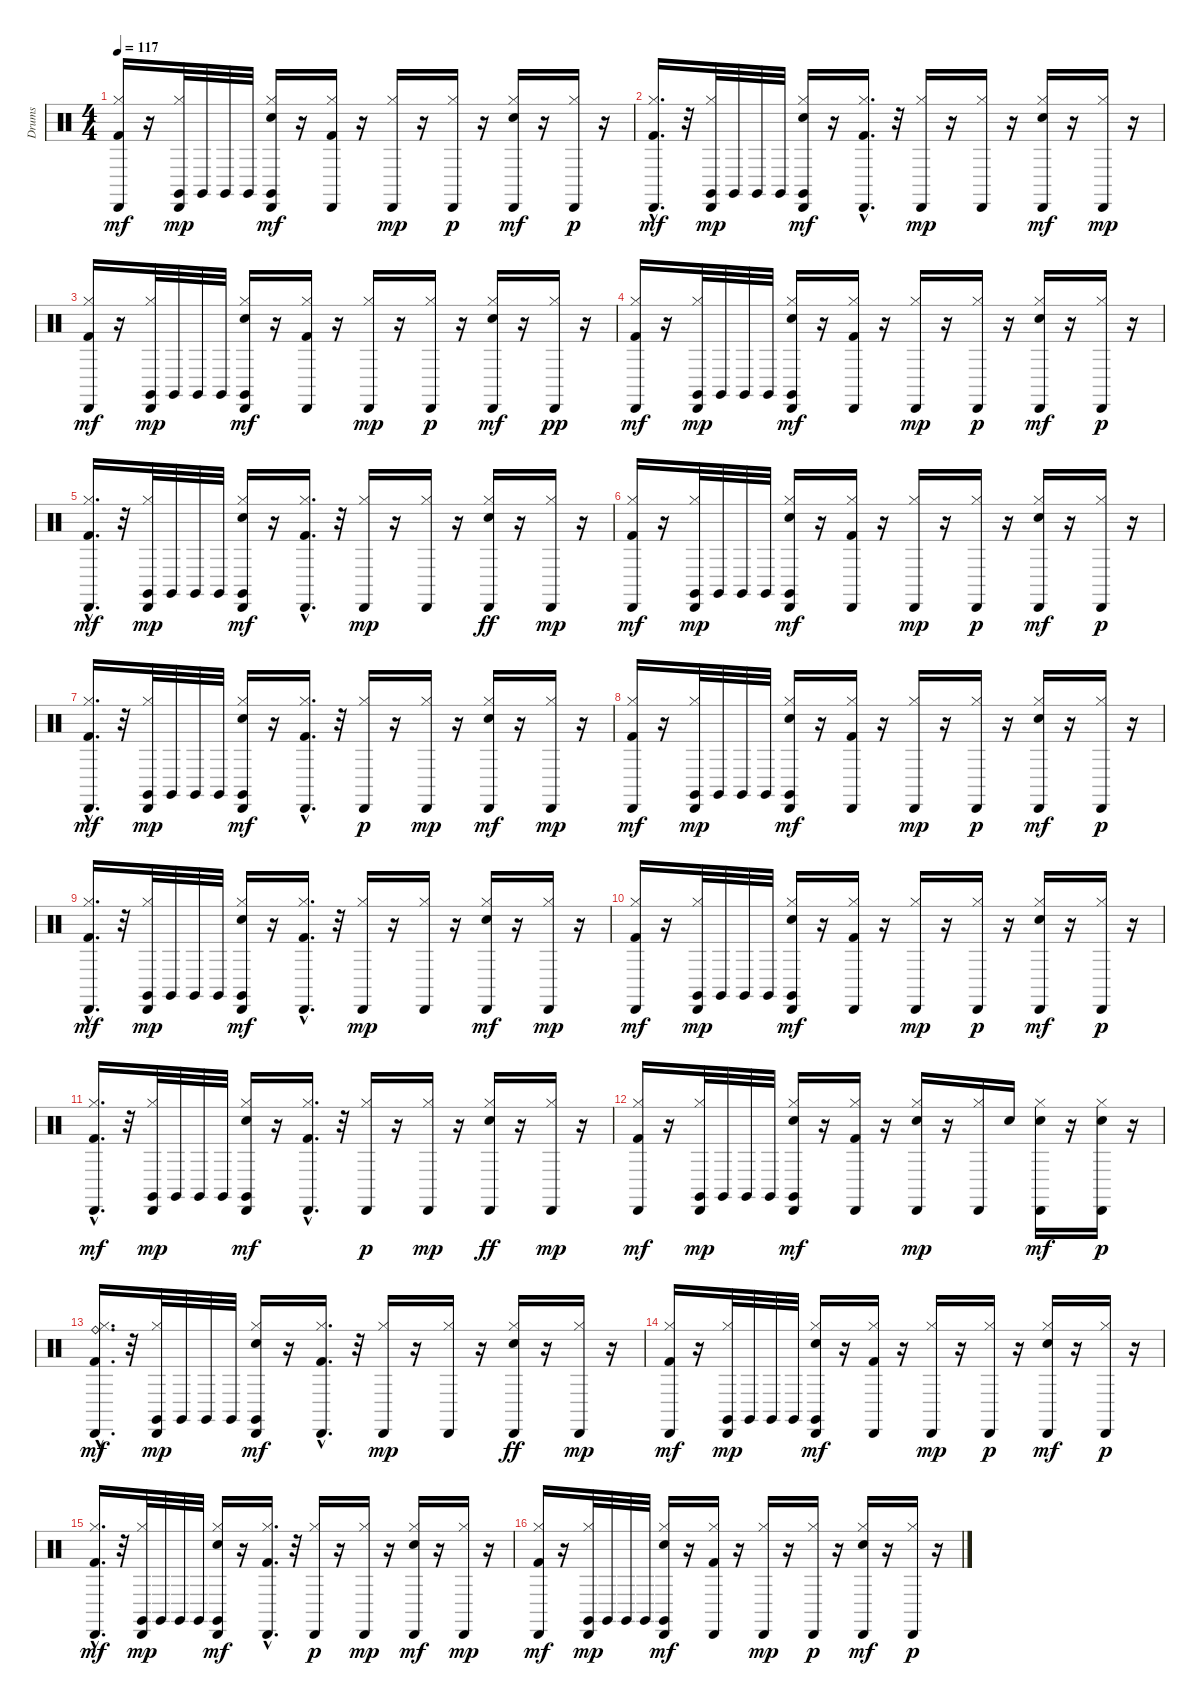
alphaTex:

\track ("Drums" "Drums") {instrument percussion}
\staff {score}
\articulation defaults
\ts (4 4)
\tempo 117
\clef neutral
\ks c
("Kick (hit) 2" "Hi-Hat (closed)" "Cabasa (hit)").16{dy mf} r.16 ("Hi-Hat (closed)" "Cabasa (hit)" "Claves (hit)").32{dy mp} "Claves (hit)".32 "Claves (hit)".32 "Claves (hit)".32 ("Electric Snare (hit)" "Hi-Hat (closed)" "Cabasa (hit)" "Claves (hit)").16{dy mf} r.16 ("Kick (hit) 2" "Hi-Hat (closed)" "Cabasa (hit)").16 r.16 ("Hi-Hat (closed)" "Cabasa (hit)").16{dy mp} r.16 ("Hi-Hat (closed)" "Cabasa (hit)").16{dy p} r.16 ("Electric Snare (hit)" "Hi-Hat (closed)" "Cabasa (hit)").16{dy mf} r.16 ("Hi-Hat (closed)" "Cabasa (hit)").16{dy p} r.16 |
("Kick (hit) 2"{hac} "Hi-Hat (closed)" "Cabasa (hit)").16{d dy mf} r.32 ("Hi-Hat (closed)" "Cabasa (hit)" "Claves (hit)").32{dy mp} "Claves (hit)".32 "Claves (hit)".32 "Claves (hit)".32 ("Electric Snare (hit)" "Hi-Hat (closed)" "Cabasa (hit)" "Claves (hit)").16{dy mf} r.16 ("Kick (hit) 2"{hac} "Hi-Hat (closed)" "Cabasa (hit)").16{d} r.32 ("Hi-Hat (closed)" "Cabasa (hit)").16{dy mp} r.16 ("Hi-Hat (closed)" "Cabasa (hit)").16 r.16 ("Electric Snare (hit)" "Hi-Hat (closed)" "Cabasa (hit)").16{dy mf} r.16 ("Hi-Hat (closed)" "Cabasa (hit)").16{dy mp} r.16 |
("Kick (hit) 2" "Hi-Hat (closed)" "Cabasa (hit)").16{dy mf} r.16 ("Hi-Hat (closed)" "Cabasa (hit)" "Claves (hit)").32{dy mp} "Claves (hit)".32 "Claves (hit)".32 "Claves (hit)".32 ("Electric Snare (hit)" "Hi-Hat (closed)" "Cabasa (hit)" "Claves (hit)").16{dy mf} r.16 ("Kick (hit) 2" "Hi-Hat (closed)" "Cabasa (hit)").16 r.16 ("Hi-Hat (closed)" "Cabasa (hit)").16{dy mp} r.16 ("Hi-Hat (closed)" "Cabasa (hit)").16{dy p} r.16 ("Electric Snare (hit)" "Hi-Hat (closed)" "Cabasa (hit)").16{dy mf} r.16 ("Hi-Hat (closed)" "Cabasa (hit)").16{dy pp} r.16 |
("Kick (hit) 2" "Hi-Hat (closed)" "Cabasa (hit)").16{dy mf} r.16 ("Hi-Hat (closed)" "Cabasa (hit)" "Claves (hit)").32{dy mp} "Claves (hit)".32 "Claves (hit)".32 "Claves (hit)".32 ("Electric Snare (hit)" "Hi-Hat (closed)" "Cabasa (hit)" "Claves (hit)").16{dy mf} r.16 ("Kick (hit) 2" "Hi-Hat (closed)" "Cabasa (hit)").16 r.16 ("Hi-Hat (closed)" "Cabasa (hit)").16{dy mp} r.16 ("Hi-Hat (closed)" "Cabasa (hit)").16{dy p} r.16 ("Electric Snare (hit)" "Hi-Hat (closed)" "Cabasa (hit)").16{dy mf} r.16 ("Hi-Hat (closed)" "Cabasa (hit)").16{dy p} r.16 |
("Kick (hit) 2"{hac} "Hi-Hat (closed)" "Cabasa (hit)").16{d dy mf} r.32 ("Hi-Hat (closed)" "Cabasa (hit)" "Claves (hit)").32{dy mp} "Claves (hit)".32 "Claves (hit)".32 "Claves (hit)".32 ("Electric Snare (hit)" "Hi-Hat (closed)" "Cabasa (hit)" "Claves (hit)").16{dy mf} r.16 ("Kick (hit) 2"{hac} "Hi-Hat (closed)" "Cabasa (hit)").16{d} r.32 ("Hi-Hat (closed)" "Cabasa (hit)").16{dy mp} r.16 ("Hi-Hat (closed)" "Cabasa (hit)").16 r.16 ("Electric Snare (hit)" "Hi-Hat (closed)" "Cabasa (hit)").16{dy ff} r.16 ("Hi-Hat (closed)" "Cabasa (hit)").16{dy mp} r.16 |
("Kick (hit) 2" "Hi-Hat (closed)" "Cabasa (hit)").16{dy mf} r.16 ("Hi-Hat (closed)" "Cabasa (hit)" "Claves (hit)").32{dy mp} "Claves (hit)".32 "Claves (hit)".32 "Claves (hit)".32 ("Electric Snare (hit)" "Hi-Hat (closed)" "Cabasa (hit)" "Claves (hit)").16{dy mf} r.16 ("Kick (hit) 2" "Hi-Hat (closed)" "Cabasa (hit)").16 r.16 ("Hi-Hat (closed)" "Cabasa (hit)").16{dy mp} r.16 ("Hi-Hat (closed)" "Cabasa (hit)").16{dy p} r.16 ("Electric Snare (hit)" "Hi-Hat (closed)" "Cabasa (hit)").16{dy mf} r.16 ("Hi-Hat (closed)" "Cabasa (hit)").16{dy p} r.16 |
("Kick (hit) 2"{hac} "Hi-Hat (closed)" "Cabasa (hit)").16{d dy mf} r.32 ("Hi-Hat (closed)" "Cabasa (hit)" "Claves (hit)").32{dy mp} "Claves (hit)".32 "Claves (hit)".32 "Claves (hit)".32 ("Electric Snare (hit)" "Hi-Hat (closed)" "Cabasa (hit)" "Claves (hit)").16{dy mf} r.16 ("Kick (hit) 2"{hac} "Hi-Hat (closed)" "Cabasa (hit)").16{d} r.32 ("Hi-Hat (closed)" "Cabasa (hit)").16{dy p} r.16 ("Hi-Hat (closed)" "Cabasa (hit)").16{dy mp} r.16 ("Electric Snare (hit)" "Hi-Hat (closed)" "Cabasa (hit)").16{dy mf} r.16 ("Hi-Hat (closed)" "Cabasa (hit)").16{dy mp} r.16 |
("Kick (hit) 2" "Hi-Hat (closed)" "Cabasa (hit)").16{dy mf} r.16 ("Hi-Hat (closed)" "Cabasa (hit)" "Claves (hit)").32{dy mp} "Claves (hit)".32 "Claves (hit)".32 "Claves (hit)".32 ("Electric Snare (hit)" "Hi-Hat (closed)" "Cabasa (hit)" "Claves (hit)").16{dy mf} r.16 ("Kick (hit) 2" "Hi-Hat (closed)" "Cabasa (hit)").16 r.16 ("Hi-Hat (closed)" "Cabasa (hit)").16{dy mp} r.16 ("Hi-Hat (closed)" "Cabasa (hit)").16{dy p} r.16 ("Electric Snare (hit)" "Hi-Hat (closed)" "Cabasa (hit)").16{dy mf} r.16 ("Hi-Hat (closed)" "Cabasa (hit)").16{dy p} r.16 |
("Kick (hit) 2"{hac} "Hi-Hat (closed)" "Cabasa (hit)").16{d dy mf} r.32 ("Hi-Hat (closed)" "Cabasa (hit)" "Claves (hit)").32{dy mp} "Claves (hit)".32 "Claves (hit)".32 "Claves (hit)".32 ("Electric Snare (hit)" "Hi-Hat (closed)" "Cabasa (hit)" "Claves (hit)").16{dy mf} r.16 ("Kick (hit) 2"{hac} "Hi-Hat (closed)" "Cabasa (hit)").16{d} r.32 ("Hi-Hat (closed)" "Cabasa (hit)").16{dy mp} r.16 ("Hi-Hat (closed)" "Cabasa (hit)").16 r.16 ("Electric Snare (hit)" "Hi-Hat (closed)" "Cabasa (hit)").16{dy mf} r.16 ("Hi-Hat (closed)" "Cabasa (hit)").16{dy mp} r.16 |
("Kick (hit) 2" "Hi-Hat (closed)" "Cabasa (hit)").16{dy mf} r.16 ("Hi-Hat (closed)" "Cabasa (hit)" "Claves (hit)").32{dy mp} "Claves (hit)".32 "Claves (hit)".32 "Claves (hit)".32 ("Electric Snare (hit)" "Hi-Hat (closed)" "Cabasa (hit)" "Claves (hit)").16{dy mf} r.16 ("Kick (hit) 2" "Hi-Hat (closed)" "Cabasa (hit)").16 r.16 ("Hi-Hat (closed)" "Cabasa (hit)").16{dy mp} r.16 ("Hi-Hat (closed)" "Cabasa (hit)").16{dy p} r.16 ("Electric Snare (hit)" "Hi-Hat (closed)" "Cabasa (hit)").16{dy mf} r.16 ("Hi-Hat (closed)" "Cabasa (hit)").16{dy p} r.16 |
("Kick (hit) 2"{hac} "Hi-Hat (closed)" "Cabasa (hit)").16{d dy mf} r.32 ("Hi-Hat (closed)" "Cabasa (hit)" "Claves (hit)").32{dy mp} "Claves (hit)".32 "Claves (hit)".32 "Claves (hit)".32 ("Electric Snare (hit)" "Hi-Hat (closed)" "Cabasa (hit)" "Claves (hit)").16{dy mf} r.16 ("Kick (hit) 2"{hac} "Hi-Hat (closed)" "Cabasa (hit)").16{d} r.32 ("Hi-Hat (closed)" "Cabasa (hit)").16{dy p} r.16 ("Hi-Hat (closed)" "Cabasa (hit)").16{dy mp} r.16 ("Electric Snare (hit)" "Hi-Hat (closed)" "Cabasa (hit)").16{dy ff} r.16 ("Hi-Hat (closed)" "Cabasa (hit)").16{dy mp} r.16 |
("Kick (hit) 2" "Hi-Hat (closed)" "Cabasa (hit)").16{dy mf} r.16 ("Hi-Hat (closed)" "Cabasa (hit)" "Claves (hit)").32{dy mp} "Claves (hit)".32 "Claves (hit)".32 "Claves (hit)".32 ("Electric Snare (hit)" "Hi-Hat (closed)" "Cabasa (hit)" "Claves (hit)").16{dy mf} r.16 ("Kick (hit) 2" "Hi-Hat (closed)" "Cabasa (hit)").16 r.16 ("Electric Snare (hit)" "Hi-Hat (closed)" "Cabasa (hit)").16{dy mp} r.16 ("Hi-Hat (closed)" "Cabasa (hit)").16 "Electric Snare (hit)".16 ("Electric Snare (hit)" "Hi-Hat (closed)" "Cabasa (hit)").16{dy mf} r.16 ("Electric Snare (hit)" "Hi-Hat (closed)" "Cabasa (hit)").16{dy p} r.16 |
("Kick (hit) 2"{hac} "Hi-Hat (closed)" "Ride (bell)" "Cabasa (hit)").16{d dy mf} r.32 ("Hi-Hat (closed)" "Cabasa (hit)" "Claves (hit)").32{dy mp} "Claves (hit)".32 "Claves (hit)".32 "Claves (hit)".32 ("Electric Snare (hit)" "Hi-Hat (closed)" "Cabasa (hit)" "Claves (hit)").16{dy mf} r.16 ("Kick (hit) 2"{hac} "Hi-Hat (closed)" "Cabasa (hit)").16{d} r.32 ("Hi-Hat (closed)" "Cabasa (hit)").16{dy mp} r.16 ("Hi-Hat (closed)" "Cabasa (hit)").16 r.16 ("Electric Snare (hit)" "Hi-Hat (closed)" "Cabasa (hit)").16{dy ff} r.16 ("Hi-Hat (closed)" "Cabasa (hit)").16{dy mp} r.16 |
("Kick (hit) 2" "Hi-Hat (closed)" "Cabasa (hit)").16{dy mf} r.16 ("Hi-Hat (closed)" "Cabasa (hit)" "Claves (hit)").32{dy mp} "Claves (hit)".32 "Claves (hit)".32 "Claves (hit)".32 ("Electric Snare (hit)" "Hi-Hat (closed)" "Cabasa (hit)" "Claves (hit)").16{dy mf} r.16 ("Kick (hit) 2" "Hi-Hat (closed)" "Cabasa (hit)").16 r.16 ("Hi-Hat (closed)" "Cabasa (hit)").16{dy mp} r.16 ("Hi-Hat (closed)" "Cabasa (hit)").16{dy p} r.16 ("Electric Snare (hit)" "Hi-Hat (closed)" "Cabasa (hit)").16{dy mf} r.16 ("Hi-Hat (closed)" "Cabasa (hit)").16{dy p} r.16 |
("Kick (hit) 2"{hac} "Hi-Hat (closed)" "Cabasa (hit)").16{d dy mf} r.32 ("Hi-Hat (closed)" "Cabasa (hit)" "Claves (hit)").32{dy mp} "Claves (hit)".32 "Claves (hit)".32 "Claves (hit)".32 ("Electric Snare (hit)" "Hi-Hat (closed)" "Cabasa (hit)" "Claves (hit)").16{dy mf} r.16 ("Kick (hit) 2"{hac} "Hi-Hat (closed)" "Cabasa (hit)").16{d} r.32 ("Hi-Hat (closed)" "Cabasa (hit)").16{dy p} r.16 ("Hi-Hat (closed)" "Cabasa (hit)").16{dy mp} r.16 ("Electric Snare (hit)" "Hi-Hat (closed)" "Cabasa (hit)").16{dy mf} r.16 ("Hi-Hat (closed)" "Cabasa (hit)").16{dy mp} r.16 |
("Kick (hit) 2" "Hi-Hat (closed)" "Cabasa (hit)").16{dy mf} r.16 ("Hi-Hat (closed)" "Cabasa (hit)" "Claves (hit)").32{dy mp} "Claves (hit)".32 "Claves (hit)".32 "Claves (hit)".32 ("Electric Snare (hit)" "Hi-Hat (closed)" "Cabasa (hit)" "Claves (hit)").16{dy mf} r.16 ("Kick (hit) 2" "Hi-Hat (closed)" "Cabasa (hit)").16 r.16 ("Hi-Hat (closed)" "Cabasa (hit)").16{dy mp} r.16 ("Hi-Hat (closed)" "Cabasa (hit)").16{dy p} r.16 ("Electric Snare (hit)" "Hi-Hat (closed)" "Cabasa (hit)").16{dy mf} r.16 ("Hi-Hat (closed)" "Cabasa (hit)").16{dy p} r.16
